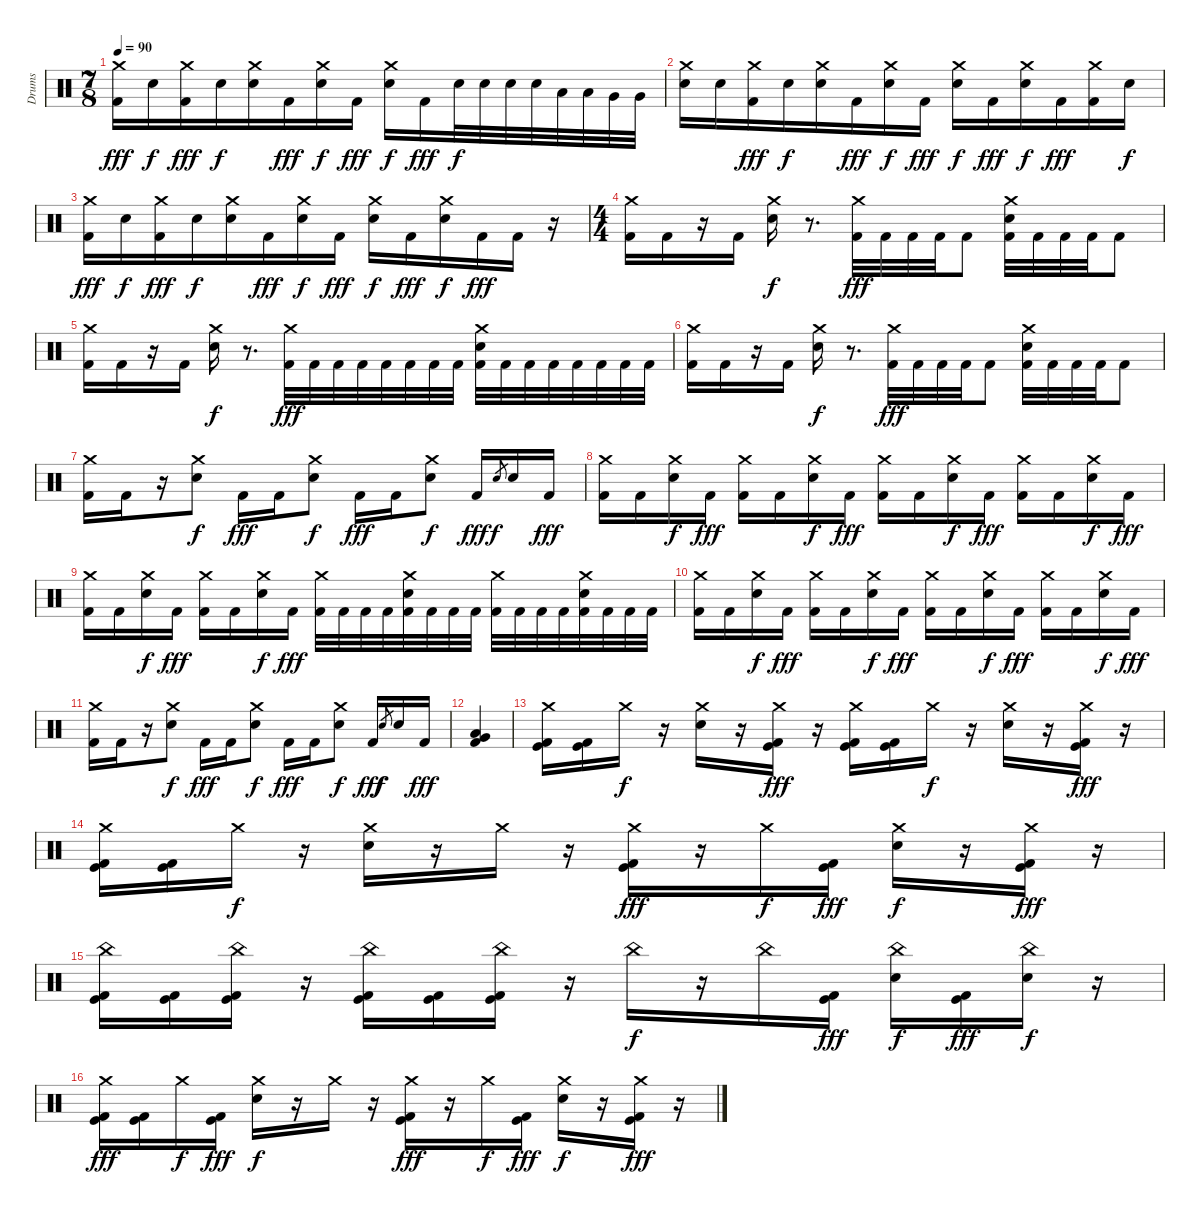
\track ("Drums" "Drums") {instrument percussion}
\staff {score}
\articulation defaults
\ts (7 8)
\tempo 90
\clef neutral
\ks c
("Crash medium (hit)" "Kick (hit) 2").16{dy fff} "Electric Snare (hit)".16{dy f} ("Crash medium (hit)" "Kick (hit) 2").16{dy fff} "Electric Snare (hit)".16{dy f} ("Crash medium (hit)" "Electric Snare (hit)").16 "Kick (hit) 2".16{dy fff} ("Crash medium (hit)" "Electric Snare (hit)").16{dy f} "Kick (hit) 2".16{dy fff} ("Crash medium (hit)" "Electric Snare (hit)").16{dy f} "Kick (hit) 2".16{dy fff} "Electric Snare (hit)".32{dy f} "Electric Snare (hit)".32 "Electric Snare (hit)".32 "Electric Snare (hit)".32 "Low Tom (hit)".32 "Low Tom (hit)".32 "Very Low Tom (hit)".32 "Very Low Tom (hit)".32 |
("Crash medium (hit)" "Electric Snare (hit)").16 "Electric Snare (hit)".16 ("Crash medium (hit)" "Kick (hit) 2").16{dy fff} "Electric Snare (hit)".16{dy f} ("Crash medium (hit)" "Electric Snare (hit)").16 "Kick (hit) 2".16{dy fff} ("Crash medium (hit)" "Electric Snare (hit)").16{dy f} "Kick (hit) 2".16{dy fff} ("Crash medium (hit)" "Electric Snare (hit)").16{dy f} "Kick (hit) 2".16{dy fff} ("Crash medium (hit)" "Electric Snare (hit)").16{dy f} "Kick (hit) 2".16{dy fff} ("Crash medium (hit)" "Kick (hit) 2").16 "Electric Snare (hit)".16{dy f} |
("Crash medium (hit)" "Kick (hit) 2").16{dy fff} "Electric Snare (hit)".16{dy f} ("Crash medium (hit)" "Kick (hit) 2").16{dy fff} "Electric Snare (hit)".16{dy f} ("Crash medium (hit)" "Electric Snare (hit)").16 "Kick (hit) 2".16{dy fff} ("Crash medium (hit)" "Electric Snare (hit)").16{dy f} "Kick (hit) 2".16{dy fff} ("Crash medium (hit)" "Electric Snare (hit)").16{dy f} "Kick (hit) 2".16{dy fff} ("Crash medium (hit)" "Electric Snare (hit)").16{dy f} "Kick (hit) 2".16{dy fff} "Kick (hit) 2".16 r.16 |
\ts (4 4)
("Crash medium (hit)" "Kick (hit) 2").16 "Kick (hit) 2".16 r.16 "Kick (hit) 2".16 ("Crash medium (hit)" "Electric Snare (hit)").16{dy f} r.8{d} ("Crash medium (hit)" "Kick (hit) 2").32{dy fff} "Kick (hit) 2".32 "Kick (hit) 2".32 "Kick (hit) 2".32 "Kick (hit) 2".8 ("Crash medium (hit)" "Electric Snare (hit)" "Kick (hit) 2").32 "Kick (hit) 2".32 "Kick (hit) 2".32 "Kick (hit) 2".32 "Kick (hit) 2".8 |
("Crash medium (hit)" "Kick (hit) 2").16 "Kick (hit) 2".16 r.16 "Kick (hit) 2".16 ("Crash medium (hit)" "Electric Snare (hit)").16{dy f} r.8{d} ("Crash medium (hit)" "Kick (hit) 2").32{dy fff} "Kick (hit) 2".32 "Kick (hit) 2".32 "Kick (hit) 2".32 "Kick (hit) 2".32 "Kick (hit) 2".32 "Kick (hit) 2".32 "Kick (hit) 2".32 ("Crash medium (hit)" "Electric Snare (hit)" "Kick (hit) 2").32 "Kick (hit) 2".32 "Kick (hit) 2".32 "Kick (hit) 2".32 "Kick (hit) 2".32 "Kick (hit) 2".32 "Kick (hit) 2".32 "Kick (hit) 2".32 |
("Crash medium (hit)" "Kick (hit) 2").16 "Kick (hit) 2".16 r.16 "Kick (hit) 2".16 ("Crash medium (hit)" "Electric Snare (hit)").16{dy f} r.8{d} ("Crash medium (hit)" "Kick (hit) 2").32{dy fff} "Kick (hit) 2".32 "Kick (hit) 2".32 "Kick (hit) 2".32 "Kick (hit) 2".8 ("Crash medium (hit)" "Electric Snare (hit)" "Kick (hit) 2").32 "Kick (hit) 2".32 "Kick (hit) 2".32 "Kick (hit) 2".32 "Kick (hit) 2".8 |
("Crash medium (hit)" "Kick (hit) 2").16 "Kick (hit) 2".16 r.16 ("Crash medium (hit)" "Electric Snare (hit)").8{dy f} "Kick (hit) 2".16{dy fff} "Kick (hit) 2".16 ("Crash medium (hit)" "Electric Snare (hit)").8{dy f} "Kick (hit) 2".16{dy fff} "Kick (hit) 2".16 ("Crash medium (hit)" "Electric Snare (hit)").8{dy f} "Kick (hit) 2".16{dy fff} "Snare (hit) 2".8{gr dy f} "Electric Snare (hit)".16 "Kick (hit) 2".16{dy fff} |
("Crash medium (hit)" "Kick (hit) 2").16 "Kick (hit) 2".16 ("Crash medium (hit)" "Electric Snare (hit)").16{dy f} "Kick (hit) 2".16{dy fff} ("Crash medium (hit)" "Kick (hit) 2").16 "Kick (hit) 2".16 ("Crash medium (hit)" "Electric Snare (hit)").16{dy f} "Kick (hit) 2".16{dy fff} ("Crash medium (hit)" "Kick (hit) 2").16 "Kick (hit) 2".16 ("Crash medium (hit)" "Electric Snare (hit)").16{dy f} "Kick (hit) 2".16{dy fff} ("Crash medium (hit)" "Kick (hit) 2").16 "Kick (hit) 2".16 ("Crash medium (hit)" "Electric Snare (hit)").16{dy f} "Kick (hit) 2".16{dy fff} |
("Crash medium (hit)" "Kick (hit) 2").16 "Kick (hit) 2".16 ("Crash medium (hit)" "Electric Snare (hit)").16{dy f} "Kick (hit) 2".16{dy fff} ("Crash medium (hit)" "Kick (hit) 2").16 "Kick (hit) 2".16 ("Crash medium (hit)" "Electric Snare (hit)").16{dy f} "Kick (hit) 2".16{dy fff} ("Crash medium (hit)" "Kick (hit) 2").32 "Kick (hit) 2".32 "Kick (hit) 2".32 "Kick (hit) 2".32 ("Crash medium (hit)" "Electric Snare (hit)" "Kick (hit) 2").32 "Kick (hit) 2".32 "Kick (hit) 2".32 "Kick (hit) 2".32 ("Crash medium (hit)" "Kick (hit) 2").32 "Kick (hit) 2".32 "Kick (hit) 2".32 "Kick (hit) 2".32 ("Crash medium (hit)" "Electric Snare (hit)" "Kick (hit) 2").32 "Kick (hit) 2".32 "Kick (hit) 2".32 "Kick (hit) 2".32 |
("Crash medium (hit)" "Kick (hit) 2").16 "Kick (hit) 2".16 ("Crash medium (hit)" "Electric Snare (hit)").16{dy f} "Kick (hit) 2".16{dy fff} ("Crash medium (hit)" "Kick (hit) 2").16 "Kick (hit) 2".16 ("Crash medium (hit)" "Electric Snare (hit)").16{dy f} "Kick (hit) 2".16{dy fff} ("Crash medium (hit)" "Kick (hit) 2").16 "Kick (hit) 2".16 ("Crash medium (hit)" "Electric Snare (hit)").16{dy f} "Kick (hit) 2".16{dy fff} ("Crash medium (hit)" "Kick (hit) 2").16 "Kick (hit) 2".16 ("Crash medium (hit)" "Electric Snare (hit)").16{dy f} "Kick (hit) 2".16{dy fff} |
("Crash medium (hit)" "Kick (hit) 2").16 "Kick (hit) 2".16 r.16 ("Crash medium (hit)" "Electric Snare (hit)").8{dy f} "Kick (hit) 2".16{dy fff} "Kick (hit) 2".16 ("Crash medium (hit)" "Electric Snare (hit)").8{dy f} "Kick (hit) 2".16{dy fff} "Kick (hit) 2".16 ("Crash medium (hit)" "Electric Snare (hit)").8{dy f} "Kick (hit) 2".16{dy fff} "Snare (hit) 2".8{gr dy f} "Electric Snare (hit)".16 "Kick (hit) 2".16{dy fff} |
("Very Low Tom (hit)" "Low Tom (hit)" "Kick (hit) 2").4 |
("Crash medium (hit)" "Kick (hit)" "Kick (hit) 2").16 ("Kick (hit)" "Kick (hit) 2").16 "Crash medium (hit)".16{dy f} r.16 ("Crash medium (hit)" "Electric Snare (hit)").16 r.16 ("Crash medium (hit)" "Kick (hit)" "Kick (hit) 2").16{dy fff} r.16 ("Crash medium (hit)" "Kick (hit)" "Kick (hit) 2").16 ("Kick (hit)" "Kick (hit) 2").16 "Crash medium (hit)".16{dy f} r.16 ("Crash medium (hit)" "Electric Snare (hit)").16 r.16 ("Crash medium (hit)" "Kick (hit)" "Kick (hit) 2").16{dy fff} r.16 |
("Crash medium (hit)" "Kick (hit)" "Kick (hit) 2").16 ("Kick (hit)" "Kick (hit) 2").16 "Crash medium (hit)".16{dy f} r.16 ("Crash medium (hit)" "Electric Snare (hit)").16 r.16 "Crash medium (hit)".16 r.16 ("Crash medium (hit)" "Kick (hit)" "Kick (hit) 2").16{dy fff} r.16 "Crash medium (hit)".16{dy f} ("Kick (hit)" "Kick (hit) 2").16{dy fff} ("Crash medium (hit)" "Electric Snare (hit)").16{dy f} r.16 ("Crash medium (hit)" "Kick (hit)" "Kick (hit) 2").16{dy fff} r.16 |
("China (hit)" "Kick (hit)" "Kick (hit) 2").16 ("Kick (hit)" "Kick (hit) 2").16 ("China (hit)" "Kick (hit)" "Kick (hit) 2").16 r.16 ("China (hit)" "Kick (hit)" "Kick (hit) 2").16 ("Kick (hit)" "Kick (hit) 2").16 ("China (hit)" "Kick (hit)" "Kick (hit) 2").16 r.16 "China (hit)".16{dy f} r.16 "China (hit)".16 ("Kick (hit)" "Kick (hit) 2").16{dy fff} ("China (hit)" "Electric Snare (hit)").16{dy f} ("Kick (hit)" "Kick (hit) 2").16{dy fff} ("China (hit)" "Electric Snare (hit)").16{dy f} r.16 |
("Crash medium (hit)" "Kick (hit)" "Kick (hit) 2").16{dy fff} ("Kick (hit)" "Kick (hit) 2").16 "Crash medium (hit)".16{dy f} ("Kick (hit)" "Kick (hit) 2").16{dy fff} ("Crash medium (hit)" "Electric Snare (hit)").16{dy f} r.16 "Crash medium (hit)".16 r.16 ("Crash medium (hit)" "Kick (hit)" "Kick (hit) 2").16{dy fff} r.16 "Crash medium (hit)".16{dy f} ("Kick (hit)" "Kick (hit) 2").16{dy fff} ("Crash medium (hit)" "Electric Snare (hit)").16{dy f} r.16 ("Crash medium (hit)" "Kick (hit)" "Kick (hit) 2").16{dy fff} r.16
